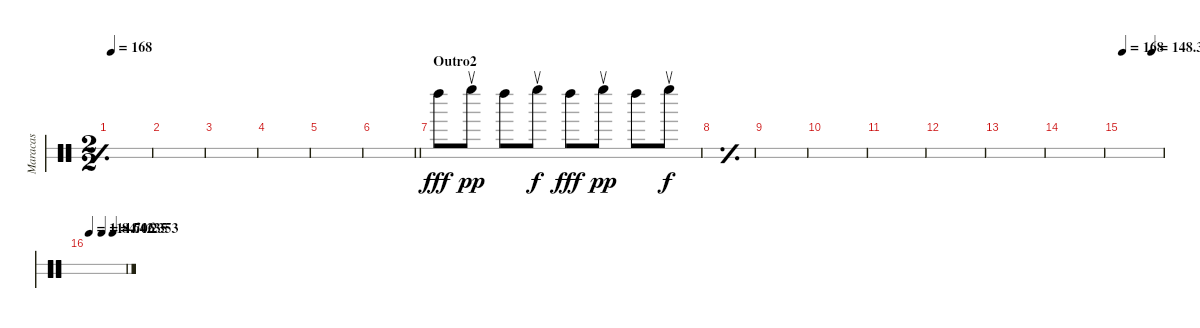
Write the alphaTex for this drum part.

\bracketExtendMode groupsimilarinstruments
\multiTrackTrackNamePolicy hidden
\otherSystemsTrackNameOrientation horizontal
\track ("Maracas" "Maracas") {instrument percussion}
\staff {score 2}
\articulation defaults
\ts (2 2)
\tempo 168
\clef neutral
\simile simple
\ks c
|
|
|
|
|
\barLineRight lightlight
|
\section ("" "Outro2")
\simile none "Left Maraca (hit)".8{dy fff beam Down} "Left Maraca (return)".8{dy pp beam Down} "Left Maraca (hit)".8{beam Down} "Left Maraca (return)".8{dy f beam Down} "Left Maraca (hit)".8{dy fff beam Down} "Left Maraca (return)".8{dy pp beam Down} "Left Maraca (hit)".8{beam Down} "Left Maraca (return)".8{dy f beam Down}
|
\simile simple
|
|
|
|
|
|
|
\tempo 168
\tempo (148.353 0.734266)
|
\tempo (114.706 0.027972)
\tempo (84.4235 0.370629)
\tempo (64.2353 0.66875)
